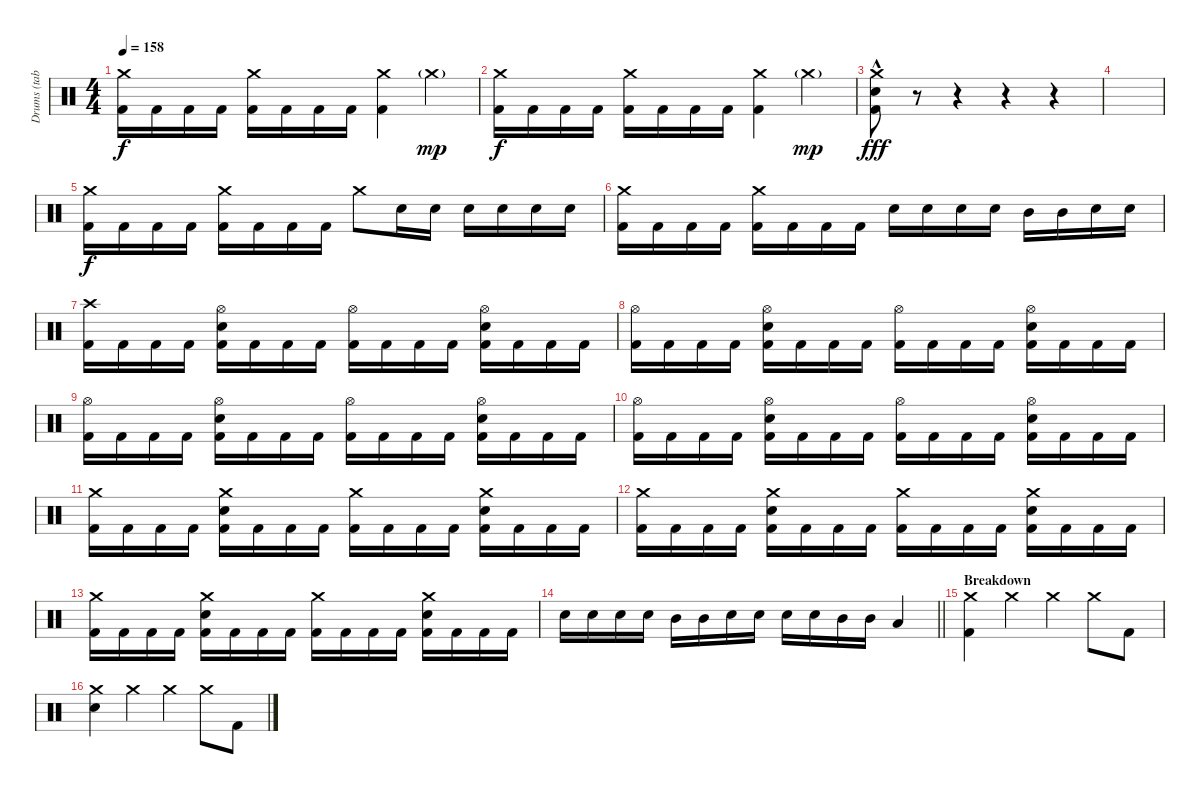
\track ("Drums (tabbed by bassman213293)" "Drums (tab") {instrument percussion}
\staff {score}
\articulation defaults
\ts (4 4)
\tempo 158
\clef neutral
\ks c
("Crash medium (hit)" "Kick (hit) 2").16{dy f} "Kick (hit) 2".16 "Kick (hit) 2".16 "Kick (hit) 2".16 ("Crash medium (hit)" "Kick (hit) 2").16 "Kick (hit) 2".16 "Kick (hit) 2".16 "Kick (hit) 2".16 ("Crash medium (hit)" "Kick (hit) 2").4 "Crash medium (hit)"{g}.4{dy mp} |
("Crash medium (hit)" "Kick (hit) 2").16{dy f} "Kick (hit) 2".16 "Kick (hit) 2".16 "Kick (hit) 2".16 ("Crash medium (hit)" "Kick (hit) 2").16 "Kick (hit) 2".16 "Kick (hit) 2".16 "Kick (hit) 2".16 ("Crash medium (hit)" "Kick (hit) 2").4 "Crash medium (hit)"{g}.4{dy mp} |
("Crash medium (hit)"{hac} "Electric Snare (hit)" "Kick (hit) 2").8{dy fff} r.8 r.4 r.4 r.4 |
|
("Crash medium (hit)" "Kick (hit) 2").16{dy f} "Kick (hit) 2".16 "Kick (hit) 2".16 "Kick (hit) 2".16 ("Crash medium (hit)" "Kick (hit) 2").16 "Kick (hit) 2".16 "Kick (hit) 2".16 "Kick (hit) 2".16 "Crash medium (hit)".8 "Electric Snare (hit)".16 "Electric Snare (hit)".16 "Electric Snare (hit)".16 "Electric Snare (hit)".16 "Electric Snare (hit)".16 "Electric Snare (hit)".16 |
("Crash medium (hit)" "Kick (hit) 2").16 "Kick (hit) 2".16 "Kick (hit) 2".16 "Kick (hit) 2".16 ("Crash medium (hit)" "Kick (hit) 2").16 "Kick (hit) 2".16 "Kick (hit) 2".16 "Kick (hit) 2".16 "Electric Snare (hit)".16 "Electric Snare (hit)".16 "Electric Snare (hit)".16 "Electric Snare (hit)".16 "Mid Tom (hit)".16 "Mid Tom (hit)".16 "Electric Snare (hit)".16 "Electric Snare (hit)".16 |
("Crash high (hit)" "Kick (hit) 2").16 "Kick (hit) 2".16 "Kick (hit) 2".16 "Kick (hit) 2".16 ("Hi-Hat (open)" "Electric Snare (hit)" "Kick (hit) 2").16 "Kick (hit) 2".16 "Kick (hit) 2".16 "Kick (hit) 2".16 ("Hi-Hat (open)" "Kick (hit) 2").16 "Kick (hit) 2".16 "Kick (hit) 2".16 "Kick (hit) 2".16 ("Hi-Hat (open)" "Electric Snare (hit)" "Kick (hit) 2").16 "Kick (hit) 2".16 "Kick (hit) 2".16 "Kick (hit) 2".16 |
("Hi-Hat (open)" "Kick (hit) 2").16 "Kick (hit) 2".16 "Kick (hit) 2".16 "Kick (hit) 2".16 ("Hi-Hat (open)" "Electric Snare (hit)" "Kick (hit) 2").16 "Kick (hit) 2".16 "Kick (hit) 2".16 "Kick (hit) 2".16 ("Hi-Hat (open)" "Kick (hit) 2").16 "Kick (hit) 2".16 "Kick (hit) 2".16 "Kick (hit) 2".16 ("Hi-Hat (open)" "Electric Snare (hit)" "Kick (hit) 2").16 "Kick (hit) 2".16 "Kick (hit) 2".16 "Kick (hit) 2".16 |
("Hi-Hat (open)" "Kick (hit) 2").16 "Kick (hit) 2".16 "Kick (hit) 2".16 "Kick (hit) 2".16 ("Hi-Hat (open)" "Electric Snare (hit)" "Kick (hit) 2").16 "Kick (hit) 2".16 "Kick (hit) 2".16 "Kick (hit) 2".16 ("Hi-Hat (open)" "Kick (hit) 2").16 "Kick (hit) 2".16 "Kick (hit) 2".16 "Kick (hit) 2".16 ("Hi-Hat (open)" "Electric Snare (hit)" "Kick (hit) 2").16 "Kick (hit) 2".16 "Kick (hit) 2".16 "Kick (hit) 2".16 |
("Hi-Hat (open)" "Kick (hit) 2").16 "Kick (hit) 2".16 "Kick (hit) 2".16 "Kick (hit) 2".16 ("Hi-Hat (open)" "Electric Snare (hit)" "Kick (hit) 2").16 "Kick (hit) 2".16 "Kick (hit) 2".16 "Kick (hit) 2".16 ("Hi-Hat (open)" "Kick (hit) 2").16 "Kick (hit) 2".16 "Kick (hit) 2".16 "Kick (hit) 2".16 ("Hi-Hat (open)" "Electric Snare (hit)" "Kick (hit) 2").16 "Kick (hit) 2".16 "Kick (hit) 2".16 "Kick (hit) 2".16 |
("Crash medium (hit)" "Kick (hit) 2").16 "Kick (hit) 2".16 "Kick (hit) 2".16 "Kick (hit) 2".16 ("Crash medium (hit)" "Electric Snare (hit)" "Kick (hit) 2").16 "Kick (hit) 2".16 "Kick (hit) 2".16 "Kick (hit) 2".16 ("Crash medium (hit)" "Kick (hit) 2").16 "Kick (hit) 2".16 "Kick (hit) 2".16 "Kick (hit) 2".16 ("Crash medium (hit)" "Electric Snare (hit)" "Kick (hit) 2").16 "Kick (hit) 2".16 "Kick (hit) 2".16 "Kick (hit) 2".16 |
("Crash medium (hit)" "Kick (hit) 2").16 "Kick (hit) 2".16 "Kick (hit) 2".16 "Kick (hit) 2".16 ("Crash medium (hit)" "Electric Snare (hit)" "Kick (hit) 2").16 "Kick (hit) 2".16 "Kick (hit) 2".16 "Kick (hit) 2".16 ("Crash medium (hit)" "Kick (hit) 2").16 "Kick (hit) 2".16 "Kick (hit) 2".16 "Kick (hit) 2".16 ("Crash medium (hit)" "Electric Snare (hit)" "Kick (hit) 2").16 "Kick (hit) 2".16 "Kick (hit) 2".16 "Kick (hit) 2".16 |
("Crash medium (hit)" "Kick (hit) 2").16 "Kick (hit) 2".16 "Kick (hit) 2".16 "Kick (hit) 2".16 ("Crash medium (hit)" "Electric Snare (hit)" "Kick (hit) 2").16 "Kick (hit) 2".16 "Kick (hit) 2".16 "Kick (hit) 2".16 ("Crash medium (hit)" "Kick (hit) 2").16 "Kick (hit) 2".16 "Kick (hit) 2".16 "Kick (hit) 2".16 ("Crash medium (hit)" "Electric Snare (hit)" "Kick (hit) 2").16 "Kick (hit) 2".16 "Kick (hit) 2".16 "Kick (hit) 2".16 |
\barLineRight lightlight "Electric Snare (hit)".16 "Electric Snare (hit)".16 "Electric Snare (hit)".16 "Electric Snare (hit)".16 "Mid Tom (hit)".16 "Mid Tom (hit)".16 "Electric Snare (hit)".16 "Electric Snare (hit)".16 "Electric Snare (hit)".16 "Electric Snare (hit)".16 "Mid Tom (hit)".16 "Mid Tom (hit)".16 "Low Tom (hit)".4
|
\section ("" "Breakdown")
("Crash medium (hit)" "Kick (hit) 2").4 "Crash medium (hit)".4 "Crash medium (hit)".4 "Crash medium (hit)".8 "Kick (hit) 2".8 |
("Crash medium (hit)" "Electric Snare (hit)").4 "Crash medium (hit)".4 "Crash medium (hit)".4 "Crash medium (hit)".8 "Kick (hit) 2".8
